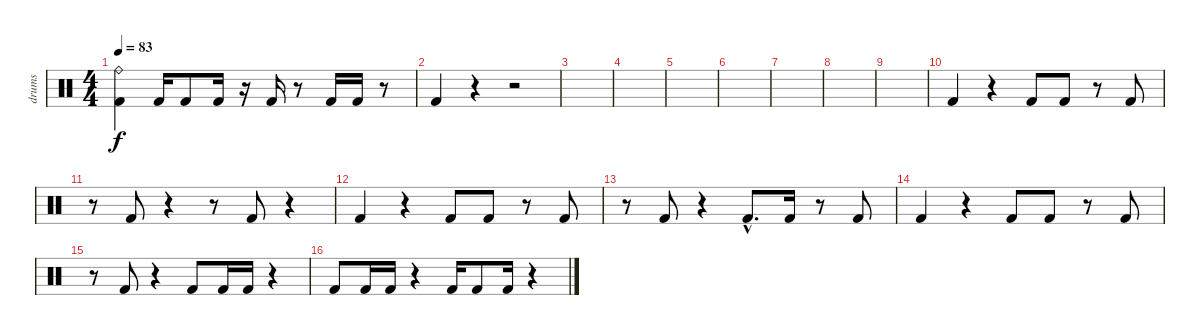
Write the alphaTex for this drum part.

\track ("drums" "drums") {instrument percussion}
\staff {score}
\articulation defaults
\ts (4 4)
\tempo 83
\clef neutral
\ks c
("Ride (bell)" "Kick (hit) 2").4{dy f} "Kick (hit) 2".16 "Kick (hit) 2".8 "Kick (hit) 2".16 r.16 "Kick (hit) 2".16 r.8 "Kick (hit) 2".16 "Kick (hit) 2".16 r.8 |
"Kick (hit) 2".4 r.4 r.2 |
|
|
|
|
|
|
|
"Kick (hit) 2".4 r.4 "Kick (hit) 2".8 "Kick (hit) 2".8 r.8 "Kick (hit) 2".8 |
r.8 "Kick (hit) 2".8 r.4 r.8 "Kick (hit) 2".8 r.4 |
"Kick (hit) 2".4 r.4 "Kick (hit) 2".8 "Kick (hit) 2".8 r.8 "Kick (hit) 2".8 |
r.8 "Kick (hit) 2".8 r.4 "Kick (hit) 2"{hac}.8{d} "Kick (hit) 2".16 r.8 "Kick (hit) 2".8 |
"Kick (hit) 2".4 r.4 "Kick (hit) 2".8 "Kick (hit) 2".8 r.8 "Kick (hit) 2".8 |
r.8 "Kick (hit) 2".8 r.4 "Kick (hit) 2".8 "Kick (hit) 2".16 "Kick (hit) 2".16 r.4 |
"Kick (hit) 2".8 "Kick (hit) 2".16 "Kick (hit) 2".16 r.4 "Kick (hit) 2".16 "Kick (hit) 2".8 "Kick (hit) 2".16 r.4
